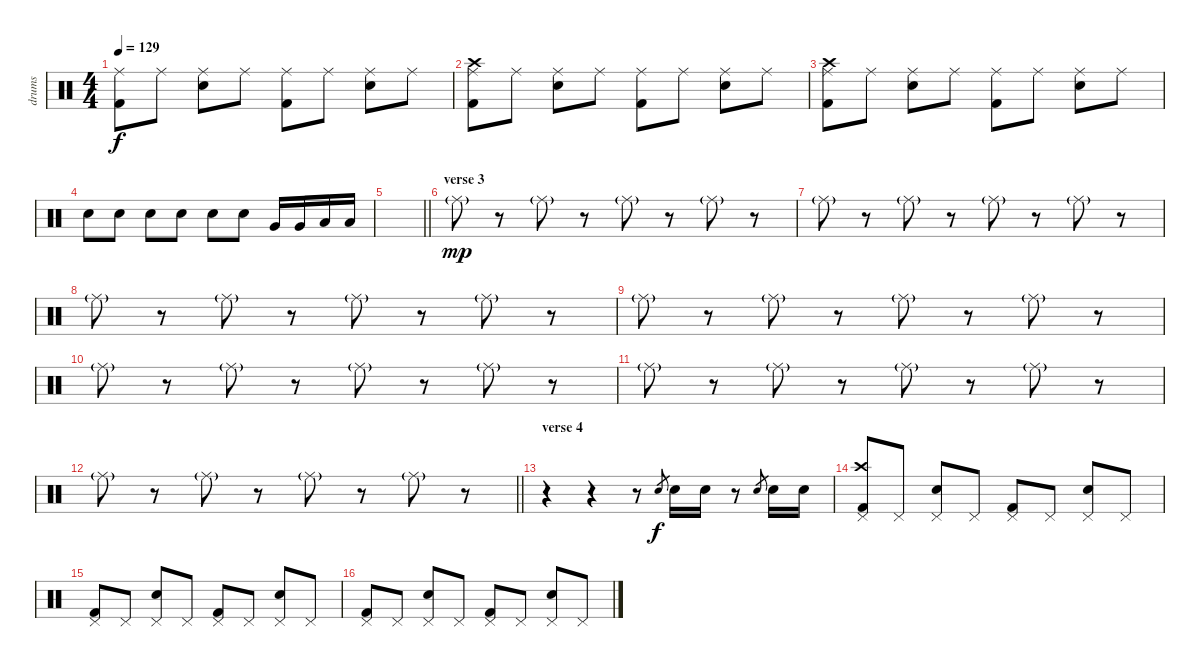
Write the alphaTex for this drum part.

\track ("drums" "drums") {instrument percussion}
\staff {score}
\articulation defaults
\ts (4 4)
\tempo 129
\clef neutral
\ks c
("Kick (hit) 2" "Ride (middle)").8{dy f} "Ride (middle)".8 ("Electric Snare (hit)" "Ride (middle)").8 "Ride (middle)".8 ("Kick (hit) 2" "Ride (middle)").8 "Ride (middle)".8 ("Electric Snare (hit)" "Ride (middle)").8 "Ride (middle)".8 |
("Kick (hit) 2" "Ride (middle)" "Crash high (hit)").8 "Ride (middle)".8 ("Electric Snare (hit)" "Ride (middle)").8 "Ride (middle)".8 ("Kick (hit) 2" "Ride (middle)").8 "Ride (middle)".8 ("Electric Snare (hit)" "Ride (middle)").8 "Ride (middle)".8 |
("Kick (hit) 2" "Ride (middle)" "Crash high (hit)").8 "Ride (middle)".8 ("Electric Snare (hit)" "Ride (middle)").8 "Ride (middle)".8 ("Kick (hit) 2" "Ride (middle)").8 "Ride (middle)".8 ("Electric Snare (hit)" "Ride (middle)").8 "Ride (middle)".8 |
"Electric Snare (hit)".8 "Electric Snare (hit)".8 "Electric Snare (hit)".8 "Electric Snare (hit)".8 "Electric Snare (hit)".8 "Electric Snare (hit)".8 "Very Low Tom (hit)".16 "Very Low Tom (hit)".16 "Low Tom (hit)".16 "Low Tom (hit)".16 |
\barLineRight lightlight
|
\section ("" "verse 3")
"Ride (middle)"{g}.8{dy mp} r.8 "Ride (middle)"{g}.8 r.8 "Ride (middle)"{g}.8 r.8 "Ride (middle)"{g}.8 r.8 |
"Ride (middle)"{g}.8 r.8 "Ride (middle)"{g}.8 r.8 "Ride (middle)"{g}.8 r.8 "Ride (middle)"{g}.8 r.8 |
"Ride (middle)"{g}.8 r.8 "Ride (middle)"{g}.8 r.8 "Ride (middle)"{g}.8 r.8 "Ride (middle)"{g}.8 r.8 |
"Ride (middle)"{g}.8 r.8 "Ride (middle)"{g}.8 r.8 "Ride (middle)"{g}.8 r.8 "Ride (middle)"{g}.8 r.8 |
"Ride (middle)"{g}.8 r.8 "Ride (middle)"{g}.8 r.8 "Ride (middle)"{g}.8 r.8 "Ride (middle)"{g}.8 r.8 |
"Ride (middle)"{g}.8 r.8 "Ride (middle)"{g}.8 r.8 "Ride (middle)"{g}.8 r.8 "Ride (middle)"{g}.8 r.8 |
\barLineRight lightlight "Ride (middle)"{g}.8
r.8 "Ride (middle)"{g}.8 r.8 "Ride (middle)"{g}.8 r.8 "Ride (middle)"{g}.8 r.8 |
\section ("" "verse 4")
r.4 r.4 r.8 "Electric Snare (hit)".8{gr dy f} "Electric Snare (hit)".16 "Electric Snare (hit)".16 r.8 "Electric Snare (hit)".8{gr} "Electric Snare (hit)".16 "Electric Snare (hit)".16 |
("Kick (hit) 2" "Pedal Hi-Hat (hit)" "Crash high (hit)").8 "Pedal Hi-Hat (hit)".8 ("Electric Snare (hit)" "Pedal Hi-Hat (hit)").8 "Pedal Hi-Hat (hit)".8 ("Kick (hit) 2" "Pedal Hi-Hat (hit)").8 "Pedal Hi-Hat (hit)".8 ("Electric Snare (hit)" "Pedal Hi-Hat (hit)").8 "Pedal Hi-Hat (hit)".8 |
("Kick (hit) 2" "Pedal Hi-Hat (hit)").8 "Pedal Hi-Hat (hit)".8 ("Electric Snare (hit)" "Pedal Hi-Hat (hit)").8 "Pedal Hi-Hat (hit)".8 ("Kick (hit) 2" "Pedal Hi-Hat (hit)").8 "Pedal Hi-Hat (hit)".8 ("Electric Snare (hit)" "Pedal Hi-Hat (hit)").8 "Pedal Hi-Hat (hit)".8 |
("Kick (hit) 2" "Pedal Hi-Hat (hit)").8 "Pedal Hi-Hat (hit)".8 ("Electric Snare (hit)" "Pedal Hi-Hat (hit)").8 "Pedal Hi-Hat (hit)".8 ("Kick (hit) 2" "Pedal Hi-Hat (hit)").8 "Pedal Hi-Hat (hit)".8 ("Electric Snare (hit)" "Pedal Hi-Hat (hit)").8 "Pedal Hi-Hat (hit)".8
